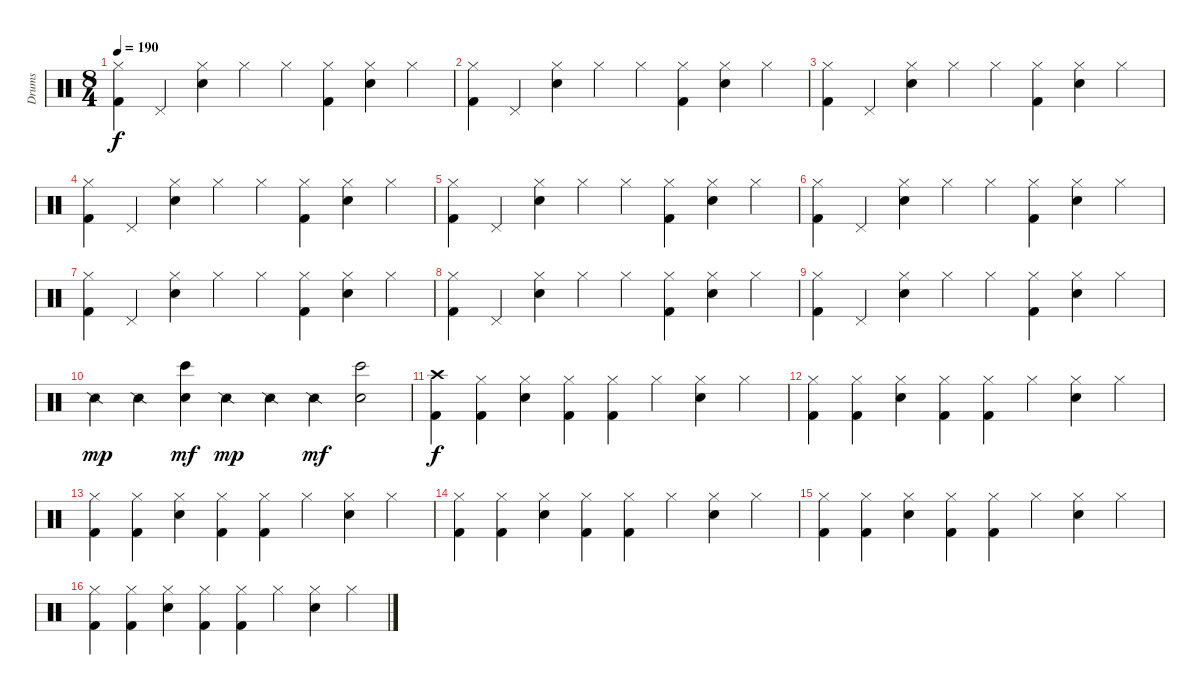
\track ("Drums" "Drums") {instrument percussion}
\staff {score}
\articulation defaults
\ts (8 4)
\tempo 190
\clef neutral
\ks c
("Hi-Hat (closed)" "Kick (hit) 2").4{dy f} "Pedal Hi-Hat (hit)".4 ("Hi-Hat (closed)" "Snare (hit) 2").4 "Hi-Hat (closed)".4 "Hi-Hat (closed)".4 ("Hi-Hat (closed)" "Kick (hit) 2").4 ("Hi-Hat (closed)" "Snare (hit) 2").4 "Hi-Hat (closed)".4 |
("Hi-Hat (closed)" "Kick (hit) 2").4 "Pedal Hi-Hat (hit)".4 ("Hi-Hat (closed)" "Snare (hit) 2").4 "Hi-Hat (closed)".4 "Hi-Hat (closed)".4 ("Hi-Hat (closed)" "Kick (hit) 2").4 ("Hi-Hat (closed)" "Snare (hit) 2").4 "Hi-Hat (closed)".4 |
("Hi-Hat (closed)" "Kick (hit) 2").4 "Pedal Hi-Hat (hit)".4 ("Hi-Hat (closed)" "Snare (hit) 2").4 "Hi-Hat (closed)".4 "Hi-Hat (closed)".4 ("Hi-Hat (closed)" "Kick (hit) 2").4 ("Hi-Hat (closed)" "Snare (hit) 2").4 "Hi-Hat (closed)".4 |
("Hi-Hat (closed)" "Kick (hit) 2").4 "Pedal Hi-Hat (hit)".4 ("Hi-Hat (closed)" "Snare (hit) 2").4 "Hi-Hat (closed)".4 "Hi-Hat (closed)".4 ("Hi-Hat (closed)" "Kick (hit) 2").4 ("Hi-Hat (closed)" "Snare (hit) 2").4 "Hi-Hat (closed)".4 |
("Hi-Hat (closed)" "Kick (hit) 2").4 "Pedal Hi-Hat (hit)".4 ("Hi-Hat (closed)" "Snare (hit) 2").4 "Hi-Hat (closed)".4 "Hi-Hat (closed)".4 ("Hi-Hat (closed)" "Kick (hit) 2").4 ("Hi-Hat (closed)" "Snare (hit) 2").4 "Hi-Hat (closed)".4 |
("Hi-Hat (closed)" "Kick (hit) 2").4 "Pedal Hi-Hat (hit)".4 ("Hi-Hat (closed)" "Snare (hit) 2").4 "Hi-Hat (closed)".4 "Hi-Hat (closed)".4 ("Hi-Hat (closed)" "Kick (hit) 2").4 ("Hi-Hat (closed)" "Snare (hit) 2").4 "Hi-Hat (closed)".4 |
("Hi-Hat (closed)" "Kick (hit) 2").4 "Pedal Hi-Hat (hit)".4 ("Hi-Hat (closed)" "Snare (hit) 2").4 "Hi-Hat (closed)".4 "Hi-Hat (closed)".4 ("Hi-Hat (closed)" "Kick (hit) 2").4 ("Hi-Hat (closed)" "Snare (hit) 2").4 "Hi-Hat (closed)".4 |
("Hi-Hat (closed)" "Kick (hit) 2").4 "Pedal Hi-Hat (hit)".4 ("Hi-Hat (closed)" "Snare (hit) 2").4 "Hi-Hat (closed)".4 "Hi-Hat (closed)".4 ("Hi-Hat (closed)" "Kick (hit) 2").4 ("Hi-Hat (closed)" "Snare (hit) 2").4 "Hi-Hat (closed)".4 |
("Hi-Hat (closed)" "Kick (hit) 2").4 "Pedal Hi-Hat (hit)".4 ("Hi-Hat (closed)" "Snare (hit) 2").4 "Hi-Hat (closed)".4 "Hi-Hat (closed)".4 ("Hi-Hat (closed)" "Kick (hit) 2").4 ("Hi-Hat (closed)" "Snare (hit) 2").4 "Hi-Hat (closed)".4 |
"Snare (side stick) 2".4{dy mp} "Snare (side stick) 2".4 ("Bongo High (hit)" "Hand Clap (hit)").4{dy mf} "Snare (side stick) 2".4{dy mp} "Snare (side stick) 2".4 "Snare (side stick) 2".4{dy mf} ("Bongo High (hit)" "Hand Clap (hit)").2 |
("Crash high (hit)" "Kick (hit) 2").4{dy f volume 13} ("Hi-Hat (closed)" "Kick (hit) 2").4 ("Hi-Hat (closed)" "Snare (hit) 2").4 ("Hi-Hat (closed)" "Kick (hit) 2").4 ("Hi-Hat (closed)" "Kick (hit) 2").4 "Hi-Hat (closed)".4 ("Hi-Hat (closed)" "Snare (hit) 2").4 "Hi-Hat (closed)".4 |
("Hi-Hat (closed)" "Kick (hit) 2").4 ("Hi-Hat (closed)" "Kick (hit) 2").4 ("Hi-Hat (closed)" "Snare (hit) 2").4 ("Hi-Hat (closed)" "Kick (hit) 2").4 ("Hi-Hat (closed)" "Kick (hit) 2").4 "Hi-Hat (closed)".4 ("Hi-Hat (closed)" "Snare (hit) 2").4 "Hi-Hat (closed)".4 |
("Hi-Hat (closed)" "Kick (hit) 2").4 ("Hi-Hat (closed)" "Kick (hit) 2").4 ("Hi-Hat (closed)" "Snare (hit) 2").4 ("Hi-Hat (closed)" "Kick (hit) 2").4 ("Hi-Hat (closed)" "Kick (hit) 2").4 "Hi-Hat (closed)".4 ("Hi-Hat (closed)" "Snare (hit) 2").4 "Hi-Hat (closed)".4 |
("Hi-Hat (closed)" "Kick (hit) 2").4 ("Hi-Hat (closed)" "Kick (hit) 2").4 ("Hi-Hat (closed)" "Snare (hit) 2").4 ("Hi-Hat (closed)" "Kick (hit) 2").4 ("Hi-Hat (closed)" "Kick (hit) 2").4 "Hi-Hat (closed)".4 ("Hi-Hat (closed)" "Snare (hit) 2").4 "Hi-Hat (closed)".4 |
("Hi-Hat (closed)" "Kick (hit) 2").4 ("Hi-Hat (closed)" "Kick (hit) 2").4 ("Hi-Hat (closed)" "Snare (hit) 2").4 ("Hi-Hat (closed)" "Kick (hit) 2").4 ("Hi-Hat (closed)" "Kick (hit) 2").4 "Hi-Hat (closed)".4 ("Hi-Hat (closed)" "Snare (hit) 2").4 "Hi-Hat (closed)".4 |
("Hi-Hat (closed)" "Kick (hit) 2").4 ("Hi-Hat (closed)" "Kick (hit) 2").4 ("Hi-Hat (closed)" "Snare (hit) 2").4 ("Hi-Hat (closed)" "Kick (hit) 2").4 ("Hi-Hat (closed)" "Kick (hit) 2").4 "Hi-Hat (closed)".4 ("Hi-Hat (closed)" "Snare (hit) 2").4 "Hi-Hat (closed)".4
